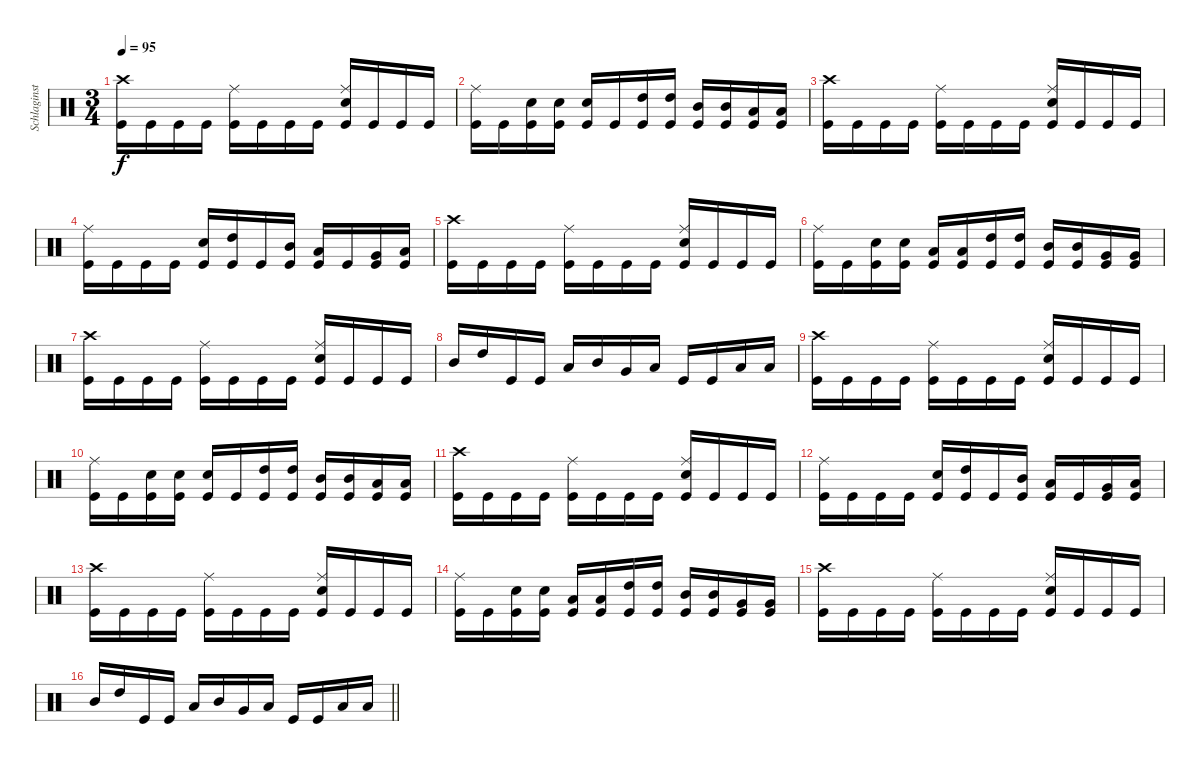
\track ("Schlaginstrumente - Auswahl" "Schlaginst") {instrument percussion}
\staff {score}
\articulation defaults
\ts (3 4)
\tempo 95
\clef neutral
\ks c
("Kick (hit)" "Crash high (hit)").16{dy f} "Kick (hit)".16 "Kick (hit)".16 "Kick (hit)".16 ("Kick (hit)" "Ride (middle)").16 "Kick (hit)".16 "Kick (hit)".16 "Kick (hit)".16 ("Kick (hit)" "Ride (middle)" "Snare (hit) 2").16 "Kick (hit)".16 "Kick (hit)".16 "Kick (hit)".16 |
("Kick (hit)" "Ride (middle)").16 "Kick (hit)".16 ("Kick (hit)" "Snare (hit) 2").16 ("Kick (hit)" "Snare (hit) 2").16 ("Kick (hit)" "Snare (hit) 2").16 "Kick (hit)".16 ("Kick (hit)" "High Tom (hit)").16 ("Kick (hit)" "High Tom (hit)").16 ("Kick (hit)" "Mid Tom (hit)").16 ("Kick (hit)" "Mid Tom (hit)").16 ("Kick (hit)" "Low Tom (hit)").16 ("Kick (hit)" "Low Tom (hit)").16 |
("Kick (hit)" "Crash high (hit)").16 "Kick (hit)".16 "Kick (hit)".16 "Kick (hit)".16 ("Kick (hit)" "Ride (middle)").16 "Kick (hit)".16 "Kick (hit)".16 "Kick (hit)".16 ("Kick (hit)" "Ride (middle)" "Snare (hit) 2").16 "Kick (hit)".16 "Kick (hit)".16 "Kick (hit)".16 |
("Kick (hit)" "Ride (middle)").16 "Kick (hit)".16 "Kick (hit)".16 "Kick (hit)".16 ("Kick (hit)" "Snare (hit) 2").16 ("Kick (hit)" "High Tom (hit)").16 "Kick (hit)".16 ("Kick (hit)" "Mid Tom (hit)").16 ("Kick (hit)" "Low Tom (hit)").16 "Kick (hit)".16 ("Kick (hit)" "Very Low Tom (hit)").16 ("Kick (hit)" "Low Floor Tom (hit)").16 |
("Kick (hit)" "Crash high (hit)").16 "Kick (hit)".16 "Kick (hit)".16 "Kick (hit)".16 ("Kick (hit)" "Ride (middle)").16 "Kick (hit)".16 "Kick (hit)".16 "Kick (hit)".16 ("Kick (hit)" "Ride (middle)" "Snare (hit) 2").16 "Kick (hit)".16 "Kick (hit)".16 "Kick (hit)".16 |
("Kick (hit)" "Ride (middle)").16 "Kick (hit)".16 ("Kick (hit)" "Snare (hit) 2").16 ("Kick (hit)" "Snare (hit) 2").16 ("Kick (hit)" "Low Tom (hit)").16 ("Kick (hit)" "Low Tom (hit)").16 ("Kick (hit)" "High Tom (hit)").16 ("Kick (hit)" "High Tom (hit)").16 ("Kick (hit)" "Mid Tom (hit)").16 ("Kick (hit)" "Mid Tom (hit)").16 ("Kick (hit)" "Very Low Tom (hit)").16 ("Kick (hit)" "Very Low Tom (hit)").16 |
("Kick (hit)" "Crash high (hit)").16 "Kick (hit)".16 "Kick (hit)".16 "Kick (hit)".16 ("Kick (hit)" "Ride (middle)").16 "Kick (hit)".16 "Kick (hit)".16 "Kick (hit)".16 ("Kick (hit)" "Ride (middle)" "Snare (hit) 2").16 "Kick (hit)".16 "Kick (hit)".16 "Kick (hit)".16 |
"Mid Tom (hit)".16 "High Tom (hit)".16 "Kick (hit)".16 "Kick (hit)".16 "Low Tom (hit)".16 "Mid Tom (hit)".16 "Very Low Tom (hit)".16 "Low Tom (hit)".16 "Kick (hit)".16 "Kick (hit)".16 "Low Floor Tom (hit)".16 "Low Floor Tom (hit)".16 |
("Kick (hit)" "Crash high (hit)").16 "Kick (hit)".16 "Kick (hit)".16 "Kick (hit)".16 ("Kick (hit)" "Ride (middle)").16 "Kick (hit)".16 "Kick (hit)".16 "Kick (hit)".16 ("Kick (hit)" "Ride (middle)" "Snare (hit) 2").16 "Kick (hit)".16 "Kick (hit)".16 "Kick (hit)".16 |
("Kick (hit)" "Ride (middle)").16 "Kick (hit)".16 ("Kick (hit)" "Snare (hit) 2").16 ("Kick (hit)" "Snare (hit) 2").16 ("Kick (hit)" "Snare (hit) 2").16 "Kick (hit)".16 ("Kick (hit)" "High Tom (hit)").16 ("Kick (hit)" "High Tom (hit)").16 ("Kick (hit)" "Mid Tom (hit)").16 ("Kick (hit)" "Mid Tom (hit)").16 ("Kick (hit)" "Low Tom (hit)").16 ("Kick (hit)" "Low Tom (hit)").16 |
("Kick (hit)" "Crash high (hit)").16 "Kick (hit)".16 "Kick (hit)".16 "Kick (hit)".16 ("Kick (hit)" "Ride (middle)").16 "Kick (hit)".16 "Kick (hit)".16 "Kick (hit)".16 ("Kick (hit)" "Ride (middle)" "Snare (hit) 2").16 "Kick (hit)".16 "Kick (hit)".16 "Kick (hit)".16 |
("Kick (hit)" "Ride (middle)").16 "Kick (hit)".16 "Kick (hit)".16 "Kick (hit)".16 ("Kick (hit)" "Snare (hit) 2").16 ("Kick (hit)" "High Tom (hit)").16 "Kick (hit)".16 ("Kick (hit)" "Mid Tom (hit)").16 ("Kick (hit)" "Low Tom (hit)").16 "Kick (hit)".16 ("Kick (hit)" "Very Low Tom (hit)").16 ("Kick (hit)" "Low Floor Tom (hit)").16 |
("Kick (hit)" "Crash high (hit)").16 "Kick (hit)".16 "Kick (hit)".16 "Kick (hit)".16 ("Kick (hit)" "Ride (middle)").16 "Kick (hit)".16 "Kick (hit)".16 "Kick (hit)".16 ("Kick (hit)" "Ride (middle)" "Snare (hit) 2").16 "Kick (hit)".16 "Kick (hit)".16 "Kick (hit)".16 |
("Kick (hit)" "Ride (middle)").16 "Kick (hit)".16 ("Kick (hit)" "Snare (hit) 2").16 ("Kick (hit)" "Snare (hit) 2").16 ("Kick (hit)" "Low Tom (hit)").16 ("Kick (hit)" "Low Tom (hit)").16 ("Kick (hit)" "High Tom (hit)").16 ("Kick (hit)" "High Tom (hit)").16 ("Kick (hit)" "Mid Tom (hit)").16 ("Kick (hit)" "Mid Tom (hit)").16 ("Kick (hit)" "Very Low Tom (hit)").16 ("Kick (hit)" "Very Low Tom (hit)").16 |
("Kick (hit)" "Crash high (hit)").16 "Kick (hit)".16 "Kick (hit)".16 "Kick (hit)".16 ("Kick (hit)" "Ride (middle)").16 "Kick (hit)".16 "Kick (hit)".16 "Kick (hit)".16 ("Kick (hit)" "Ride (middle)" "Snare (hit) 2").16 "Kick (hit)".16 "Kick (hit)".16 "Kick (hit)".16 |
\barLineRight lightlight "Mid Tom (hit)".16 "High Tom (hit)".16 "Kick (hit)".16 "Kick (hit)".16 "Low Tom (hit)".16 "Mid Tom (hit)".16 "Very Low Tom (hit)".16 "Low Tom (hit)".16 "Kick (hit)".16 "Kick (hit)".16 "Low Floor Tom (hit)".16 "Low Floor Tom (hit)".16
